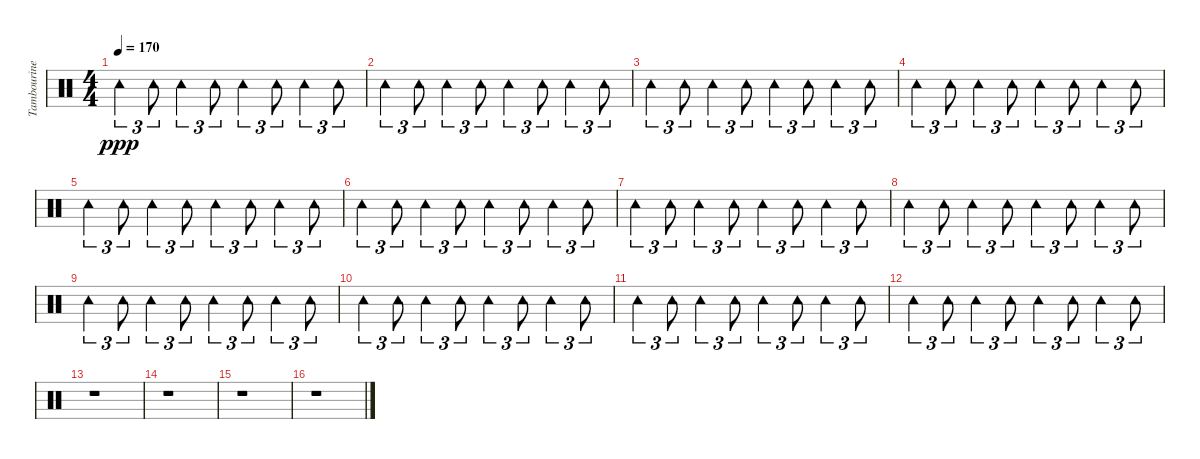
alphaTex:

\track ("Tambourine" "Tambourine") {instrument percussion}
\staff {score}
\articulation defaults
\ts (4 4)
\tempo 170
\clef neutral
\ks c "Tambourine (hit)".4{tu (3 2) dy ppp} "Tambourine (hit)".8{tu (3 2)} "Tambourine (hit)".4{tu (3 2)} "Tambourine (hit)".8{tu (3 2)} "Tambourine (hit)".4{tu (3 2)} "Tambourine (hit)".8{tu (3 2)} "Tambourine (hit)".4{tu (3 2)} "Tambourine (hit)".8{tu (3 2)}
|
"Tambourine (hit)".4{tu (3 2)} "Tambourine (hit)".8{tu (3 2)} "Tambourine (hit)".4{tu (3 2)} "Tambourine (hit)".8{tu (3 2)} "Tambourine (hit)".4{tu (3 2)} "Tambourine (hit)".8{tu (3 2)} "Tambourine (hit)".4{tu (3 2)} "Tambourine (hit)".8{tu (3 2)} |
"Tambourine (hit)".4{tu (3 2)} "Tambourine (hit)".8{tu (3 2)} "Tambourine (hit)".4{tu (3 2)} "Tambourine (hit)".8{tu (3 2)} "Tambourine (hit)".4{tu (3 2)} "Tambourine (hit)".8{tu (3 2)} "Tambourine (hit)".4{tu (3 2)} "Tambourine (hit)".8{tu (3 2)} |
"Tambourine (hit)".4{tu (3 2)} "Tambourine (hit)".8{tu (3 2)} "Tambourine (hit)".4{tu (3 2)} "Tambourine (hit)".8{tu (3 2)} "Tambourine (hit)".4{tu (3 2)} "Tambourine (hit)".8{tu (3 2)} "Tambourine (hit)".4{tu (3 2)} "Tambourine (hit)".8{tu (3 2)} |
"Tambourine (hit)".4{tu (3 2)} "Tambourine (hit)".8{tu (3 2)} "Tambourine (hit)".4{tu (3 2)} "Tambourine (hit)".8{tu (3 2)} "Tambourine (hit)".4{tu (3 2)} "Tambourine (hit)".8{tu (3 2)} "Tambourine (hit)".4{tu (3 2)} "Tambourine (hit)".8{tu (3 2)} |
"Tambourine (hit)".4{tu (3 2)} "Tambourine (hit)".8{tu (3 2)} "Tambourine (hit)".4{tu (3 2)} "Tambourine (hit)".8{tu (3 2)} "Tambourine (hit)".4{tu (3 2)} "Tambourine (hit)".8{tu (3 2)} "Tambourine (hit)".4{tu (3 2)} "Tambourine (hit)".8{tu (3 2)} |
"Tambourine (hit)".4{tu (3 2)} "Tambourine (hit)".8{tu (3 2)} "Tambourine (hit)".4{tu (3 2)} "Tambourine (hit)".8{tu (3 2)} "Tambourine (hit)".4{tu (3 2)} "Tambourine (hit)".8{tu (3 2)} "Tambourine (hit)".4{tu (3 2)} "Tambourine (hit)".8{tu (3 2)} |
"Tambourine (hit)".4{tu (3 2)} "Tambourine (hit)".8{tu (3 2)} "Tambourine (hit)".4{tu (3 2)} "Tambourine (hit)".8{tu (3 2)} "Tambourine (hit)".4{tu (3 2)} "Tambourine (hit)".8{tu (3 2)} "Tambourine (hit)".4{tu (3 2)} "Tambourine (hit)".8{tu (3 2)} |
"Tambourine (hit)".4{tu (3 2)} "Tambourine (hit)".8{tu (3 2)} "Tambourine (hit)".4{tu (3 2)} "Tambourine (hit)".8{tu (3 2)} "Tambourine (hit)".4{tu (3 2)} "Tambourine (hit)".8{tu (3 2)} "Tambourine (hit)".4{tu (3 2)} "Tambourine (hit)".8{tu (3 2)} |
"Tambourine (hit)".4{tu (3 2)} "Tambourine (hit)".8{tu (3 2)} "Tambourine (hit)".4{tu (3 2)} "Tambourine (hit)".8{tu (3 2)} "Tambourine (hit)".4{tu (3 2)} "Tambourine (hit)".8{tu (3 2)} "Tambourine (hit)".4{tu (3 2)} "Tambourine (hit)".8{tu (3 2)} |
"Tambourine (hit)".4{tu (3 2)} "Tambourine (hit)".8{tu (3 2)} "Tambourine (hit)".4{tu (3 2)} "Tambourine (hit)".8{tu (3 2)} "Tambourine (hit)".4{tu (3 2)} "Tambourine (hit)".8{tu (3 2)} "Tambourine (hit)".4{tu (3 2)} "Tambourine (hit)".8{tu (3 2)} |
"Tambourine (hit)".4{tu (3 2)} "Tambourine (hit)".8{tu (3 2)} "Tambourine (hit)".4{tu (3 2)} "Tambourine (hit)".8{tu (3 2)} "Tambourine (hit)".4{tu (3 2)} "Tambourine (hit)".8{tu (3 2)} "Tambourine (hit)".4{tu (3 2)} "Tambourine (hit)".8{tu (3 2)} |
r.1 |
r.1 |
r.1 |
r.1
